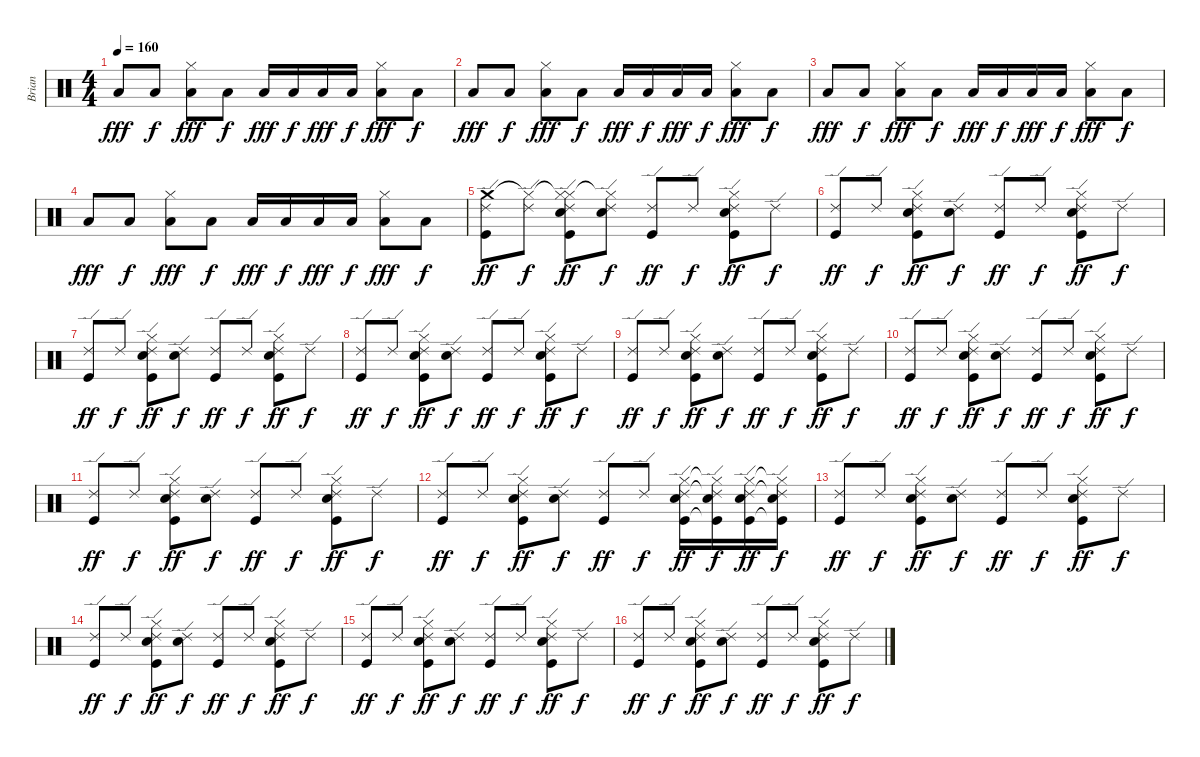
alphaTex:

\track ("Brian" "Brian") {instrument percussion}
\staff {score}
\articulation defaults
\ts (4 4)
\tempo 160
\clef neutral
\ks c "Low Tom (hit)".8{dy fff} "Low Tom (hit)".8{dy f}
("Hi-Hat (closed)" "Low Tom (hit)").8{dy fff} "Low Tom (hit)".8{dy f} "Low Tom (hit)".16{dy fff} "Low Tom (hit)".16{dy f} "Low Tom (hit)".16{dy fff} "Low Tom (hit)".16{dy f} ("Hi-Hat (closed)" "Low Tom (hit)").8{dy fff} "Low Tom (hit)".8{dy f} |
"Low Tom (hit)".8{dy fff} "Low Tom (hit)".8{dy f} ("Hi-Hat (closed)" "Low Tom (hit)").8{dy fff} "Low Tom (hit)".8{dy f} "Low Tom (hit)".16{dy fff} "Low Tom (hit)".16{dy f} "Low Tom (hit)".16{dy fff} "Low Tom (hit)".16{dy f} ("Hi-Hat (closed)" "Low Tom (hit)").8{dy fff} "Low Tom (hit)".8{dy f} |
"Low Tom (hit)".8{dy fff} "Low Tom (hit)".8{dy f} ("Hi-Hat (closed)" "Low Tom (hit)").8{dy fff} "Low Tom (hit)".8{dy f} "Low Tom (hit)".16{dy fff} "Low Tom (hit)".16{dy f} "Low Tom (hit)".16{dy fff} "Low Tom (hit)".16{dy f} ("Hi-Hat (closed)" "Low Tom (hit)").8{dy fff} "Low Tom (hit)".8{dy f} |
"Low Tom (hit)".8{dy fff} "Low Tom (hit)".8{dy f} ("Hi-Hat (closed)" "Low Tom (hit)").8{dy fff} "Low Tom (hit)".8{dy f} "Low Tom (hit)".16{dy fff} "Low Tom (hit)".16{dy f} "Low Tom (hit)".16{dy fff} "Low Tom (hit)".16{dy f} ("Hi-Hat (closed)" "Low Tom (hit)").8{dy fff} "Low Tom (hit)".8{dy f} |
("Ride (edge) 2" "Crash medium (hit)" "Kick (hit)").8{dy ff} ("Ride (edge) 2" "Hi-Hat (closed)"{t}).8{dy f} ("Ride (edge) 2" "Hi-Hat (closed)"{t} "Hi-Hat (closed)" "Snare (hit) 2" "Kick (hit)").8{dy ff} ("Ride (edge) 2" "Hi-Hat (closed)"{t} "Snare (hit) 2").8{dy f} ("Ride (edge) 2" "Kick (hit)").8{dy ff} "Ride (edge) 2".8{dy f} ("Ride (edge) 2" "Hi-Hat (closed)" "Snare (hit) 2" "Kick (hit)").8{dy ff} "Ride (edge) 2".8{dy f} |
("Ride (edge) 2" "Kick (hit)").8{dy ff} "Ride (edge) 2".8{dy f} ("Ride (edge) 2" "Hi-Hat (closed)" "Snare (hit) 2" "Kick (hit)").8{dy ff} ("Ride (edge) 2" "Snare (hit) 2").8{dy f} ("Ride (edge) 2" "Kick (hit)").8{dy ff} "Ride (edge) 2".8{dy f} ("Ride (edge) 2" "Hi-Hat (closed)" "Snare (hit) 2" "Kick (hit)").8{dy ff} "Ride (edge) 2".8{dy f} |
("Ride (edge) 2" "Kick (hit)").8{dy ff} "Ride (edge) 2".8{dy f} ("Ride (edge) 2" "Hi-Hat (closed)" "Snare (hit) 2" "Kick (hit)").8{dy ff} ("Ride (edge) 2" "Snare (hit) 2").8{dy f} ("Ride (edge) 2" "Kick (hit)").8{dy ff} "Ride (edge) 2".8{dy f} ("Ride (edge) 2" "Hi-Hat (closed)" "Snare (hit) 2" "Kick (hit)").8{dy ff} "Ride (edge) 2".8{dy f} |
("Ride (edge) 2" "Kick (hit)").8{dy ff} "Ride (edge) 2".8{dy f} ("Ride (edge) 2" "Hi-Hat (closed)" "Snare (hit) 2" "Kick (hit)").8{dy ff} ("Ride (edge) 2" "Snare (hit) 2").8{dy f} ("Ride (edge) 2" "Kick (hit)").8{dy ff} "Ride (edge) 2".8{dy f} ("Ride (edge) 2" "Hi-Hat (closed)" "Snare (hit) 2" "Kick (hit)").8{dy ff} "Ride (edge) 2".8{dy f} |
("Ride (edge) 2" "Kick (hit)").8{dy ff} "Ride (edge) 2".8{dy f} ("Ride (edge) 2" "Hi-Hat (closed)" "Snare (hit) 2" "Kick (hit)").8{dy ff} ("Ride (edge) 2" "Snare (hit) 2").8{dy f} ("Ride (edge) 2" "Kick (hit)").8{dy ff} "Ride (edge) 2".8{dy f} ("Ride (edge) 2" "Hi-Hat (closed)" "Snare (hit) 2" "Kick (hit)").8{dy ff} "Ride (edge) 2".8{dy f} |
("Ride (edge) 2" "Kick (hit)").8{dy ff} "Ride (edge) 2".8{dy f} ("Ride (edge) 2" "Hi-Hat (closed)" "Snare (hit) 2" "Kick (hit)").8{dy ff} ("Ride (edge) 2" "Snare (hit) 2").8{dy f} ("Ride (edge) 2" "Kick (hit)").8{dy ff} "Ride (edge) 2".8{dy f} ("Ride (edge) 2" "Hi-Hat (closed)" "Snare (hit) 2" "Kick (hit)").8{dy ff} "Ride (edge) 2".8{dy f} |
("Ride (edge) 2" "Kick (hit)").8{dy ff} "Ride (edge) 2".8{dy f} ("Ride (edge) 2" "Hi-Hat (closed)" "Snare (hit) 2" "Kick (hit)").8{dy ff} ("Ride (edge) 2" "Snare (hit) 2").8{dy f} ("Ride (edge) 2" "Kick (hit)").8{dy ff} "Ride (edge) 2".8{dy f} ("Ride (edge) 2" "Hi-Hat (closed)" "Snare (hit) 2" "Kick (hit)").8{dy ff} "Ride (edge) 2".8{dy f} |
("Ride (edge) 2" "Kick (hit)").8{dy ff} "Ride (edge) 2".8{dy f} ("Ride (edge) 2" "Hi-Hat (closed)" "Snare (hit) 2" "Kick (hit)").8{dy ff} ("Ride (edge) 2" "Snare (hit) 2").8{dy f} ("Ride (edge) 2" "Kick (hit)").8{dy ff} "Ride (edge) 2".8{dy f} ("Ride (edge) 2" "Hi-Hat (closed)" "Snare (hit) 2" "Kick (hit)").16{dy ff} ("Ride (edge) 2"{t} "Hi-Hat (closed)"{t} "Snare (hit) 2" "Kick (hit)"{t}).16{dy f} ("Ride (edge) 2" "Hi-Hat (closed)" "Snare (hit) 2" "Kick (hit)").16{dy ff} ("Ride (edge) 2"{t} "Hi-Hat (closed)"{t} "Snare (hit) 2" "Kick (hit)"{t}).16{dy f} |
("Ride (edge) 2" "Kick (hit)").8{dy ff} "Ride (edge) 2".8{dy f} ("Ride (edge) 2" "Hi-Hat (closed)" "Snare (hit) 2" "Kick (hit)").8{dy ff} ("Ride (edge) 2" "Snare (hit) 2").8{dy f} ("Ride (edge) 2" "Kick (hit)").8{dy ff} "Ride (edge) 2".8{dy f} ("Ride (edge) 2" "Hi-Hat (closed)" "Snare (hit) 2" "Kick (hit)").8{dy ff} "Ride (edge) 2".8{dy f} |
("Ride (edge) 2" "Kick (hit)").8{dy ff} "Ride (edge) 2".8{dy f} ("Ride (edge) 2" "Hi-Hat (closed)" "Snare (hit) 2" "Kick (hit)").8{dy ff} ("Ride (edge) 2" "Snare (hit) 2").8{dy f} ("Ride (edge) 2" "Kick (hit)").8{dy ff} "Ride (edge) 2".8{dy f} ("Ride (edge) 2" "Hi-Hat (closed)" "Snare (hit) 2" "Kick (hit)").8{dy ff} "Ride (edge) 2".8{dy f} |
("Ride (edge) 2" "Kick (hit)").8{dy ff} "Ride (edge) 2".8{dy f} ("Ride (edge) 2" "Hi-Hat (closed)" "Snare (hit) 2" "Kick (hit)").8{dy ff} ("Ride (edge) 2" "Snare (hit) 2").8{dy f} ("Ride (edge) 2" "Kick (hit)").8{dy ff} "Ride (edge) 2".8{dy f} ("Ride (edge) 2" "Hi-Hat (closed)" "Snare (hit) 2" "Kick (hit)").8{dy ff} "Ride (edge) 2".8{dy f} |
("Ride (edge) 2" "Kick (hit)").8{dy ff} "Ride (edge) 2".8{dy f} ("Ride (edge) 2" "Hi-Hat (closed)" "Snare (hit) 2" "Kick (hit)").8{dy ff} ("Ride (edge) 2" "Snare (hit) 2").8{dy f} ("Ride (edge) 2" "Kick (hit)").8{dy ff} "Ride (edge) 2".8{dy f} ("Ride (edge) 2" "Hi-Hat (closed)" "Snare (hit) 2" "Kick (hit)").8{dy ff} "Ride (edge) 2".8{dy f}
